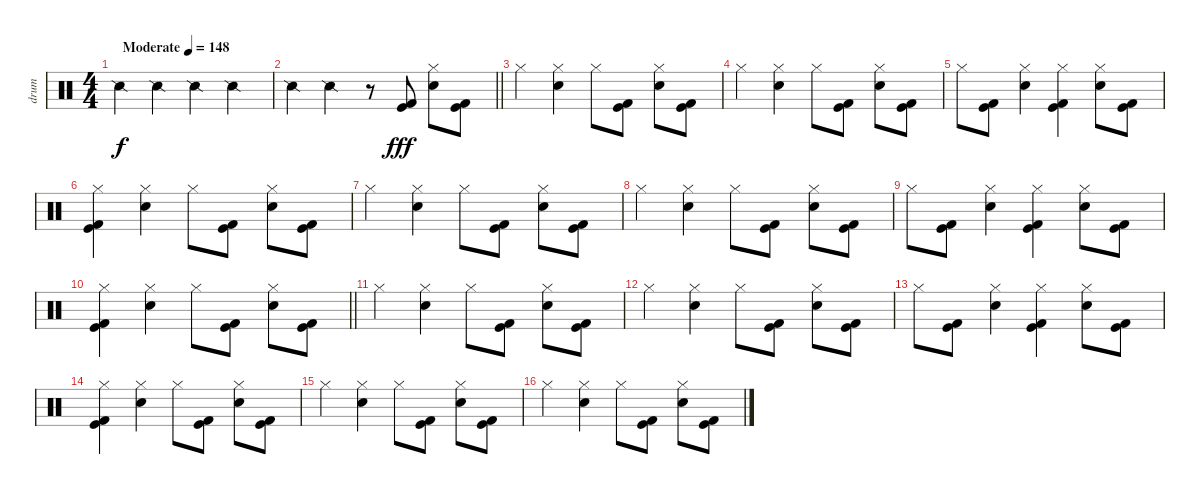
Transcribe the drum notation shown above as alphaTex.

\track ("drum" "drum") {instrument percussion}
\staff {score}
\articulation defaults
\ts (4 4)
\tempo (148 "Moderate")
\clef neutral
\ks c "Snare (side stick) 2".4{dy f} "Snare (side stick) 2".4 "Snare (side stick) 2".4 "Snare (side stick) 2".4
|
\barLineRight lightlight "Snare (side stick) 2".4 "Snare (side stick) 2".4
r.8 ("Kick (hit)" "Kick (hit) 2").8{dy fff} ("Snare (hit) 2" "Hi-Hat (closed)").8 ("Kick (hit)" "Kick (hit) 2").8 |
\section ("" "")
"Hi-Hat (closed)".4 ("Snare (hit) 2" "Hi-Hat (closed)").4 "Hi-Hat (closed)".8 ("Kick (hit)" "Kick (hit) 2").8 ("Snare (hit) 2" "Hi-Hat (closed)").8 ("Kick (hit)" "Kick (hit) 2").8 |
"Hi-Hat (closed)".4 ("Snare (hit) 2" "Hi-Hat (closed)").4 "Hi-Hat (closed)".8 ("Kick (hit)" "Kick (hit) 2").8 ("Snare (hit) 2" "Hi-Hat (closed)").8 ("Kick (hit)" "Kick (hit) 2").8 |
"Hi-Hat (closed)".8 ("Kick (hit)" "Kick (hit) 2").8 ("Snare (hit) 2" "Hi-Hat (closed)").4 ("Hi-Hat (closed)" "Kick (hit)" "Kick (hit) 2").4 ("Snare (hit) 2" "Hi-Hat (closed)").8 ("Kick (hit)" "Kick (hit) 2").8 |
("Hi-Hat (closed)" "Kick (hit)" "Kick (hit) 2").4 ("Snare (hit) 2" "Hi-Hat (closed)").4 "Hi-Hat (closed)".8 ("Kick (hit)" "Kick (hit) 2").8 ("Snare (hit) 2" "Hi-Hat (closed)").8 ("Kick (hit)" "Kick (hit) 2").8 |
"Hi-Hat (closed)".4 ("Snare (hit) 2" "Hi-Hat (closed)").4 "Hi-Hat (closed)".8 ("Kick (hit)" "Kick (hit) 2").8 ("Snare (hit) 2" "Hi-Hat (closed)").8 ("Kick (hit)" "Kick (hit) 2").8 |
"Hi-Hat (closed)".4 ("Snare (hit) 2" "Hi-Hat (closed)").4 "Hi-Hat (closed)".8 ("Kick (hit)" "Kick (hit) 2").8 ("Snare (hit) 2" "Hi-Hat (closed)").8 ("Kick (hit)" "Kick (hit) 2").8 |
"Hi-Hat (closed)".8 ("Kick (hit)" "Kick (hit) 2").8 ("Snare (hit) 2" "Hi-Hat (closed)").4 ("Hi-Hat (closed)" "Kick (hit)" "Kick (hit) 2").4 ("Snare (hit) 2" "Hi-Hat (closed)").8 ("Kick (hit)" "Kick (hit) 2").8 |
\barLineRight lightlight
("Hi-Hat (closed)" "Kick (hit)" "Kick (hit) 2").4 ("Snare (hit) 2" "Hi-Hat (closed)").4 "Hi-Hat (closed)".8 ("Kick (hit)" "Kick (hit) 2").8 ("Snare (hit) 2" "Hi-Hat (closed)").8 ("Kick (hit)" "Kick (hit) 2").8 |
\section ("" "")
"Hi-Hat (closed)".4 ("Snare (hit) 2" "Hi-Hat (closed)").4 "Hi-Hat (closed)".8 ("Kick (hit)" "Kick (hit) 2").8 ("Snare (hit) 2" "Hi-Hat (closed)").8 ("Kick (hit)" "Kick (hit) 2").8 |
"Hi-Hat (closed)".4 ("Snare (hit) 2" "Hi-Hat (closed)").4 "Hi-Hat (closed)".8 ("Kick (hit)" "Kick (hit) 2").8 ("Snare (hit) 2" "Hi-Hat (closed)").8 ("Kick (hit)" "Kick (hit) 2").8 |
"Hi-Hat (closed)".8 ("Kick (hit)" "Kick (hit) 2").8 ("Snare (hit) 2" "Hi-Hat (closed)").4 ("Hi-Hat (closed)" "Kick (hit)" "Kick (hit) 2").4 ("Snare (hit) 2" "Hi-Hat (closed)").8 ("Kick (hit)" "Kick (hit) 2").8 |
("Hi-Hat (closed)" "Kick (hit)" "Kick (hit) 2").4 ("Snare (hit) 2" "Hi-Hat (closed)").4 "Hi-Hat (closed)".8 ("Kick (hit)" "Kick (hit) 2").8 ("Snare (hit) 2" "Hi-Hat (closed)").8 ("Kick (hit)" "Kick (hit) 2").8 |
"Hi-Hat (closed)".4 ("Snare (hit) 2" "Hi-Hat (closed)").4 "Hi-Hat (closed)".8 ("Kick (hit)" "Kick (hit) 2").8 ("Snare (hit) 2" "Hi-Hat (closed)").8 ("Kick (hit)" "Kick (hit) 2").8 |
"Hi-Hat (closed)".4 ("Snare (hit) 2" "Hi-Hat (closed)").4 "Hi-Hat (closed)".8 ("Kick (hit)" "Kick (hit) 2").8 ("Snare (hit) 2" "Hi-Hat (closed)").8 ("Kick (hit)" "Kick (hit) 2").8
